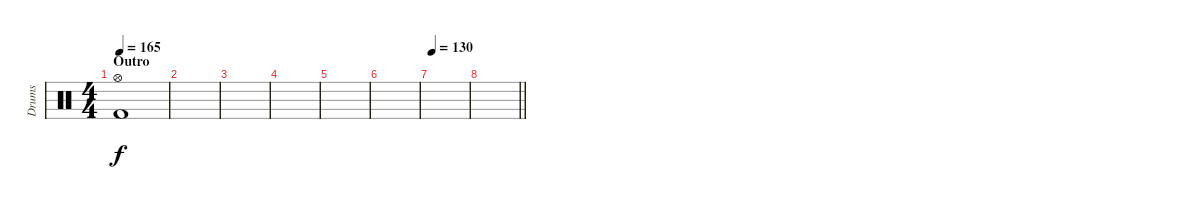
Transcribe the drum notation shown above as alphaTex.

\track ("Drums" "Drums") {instrument percussion}
\staff {score}
\articulation defaults
\ts (4 4)
\section ("" "Outro")
\tempo 165
\clef neutral
\ks c
("Hi-Hat (open)" "Kick (hit) 2").1{dy f} |
|
|
|
|
|
\tempo 130
|
\barLineRight lightlight
